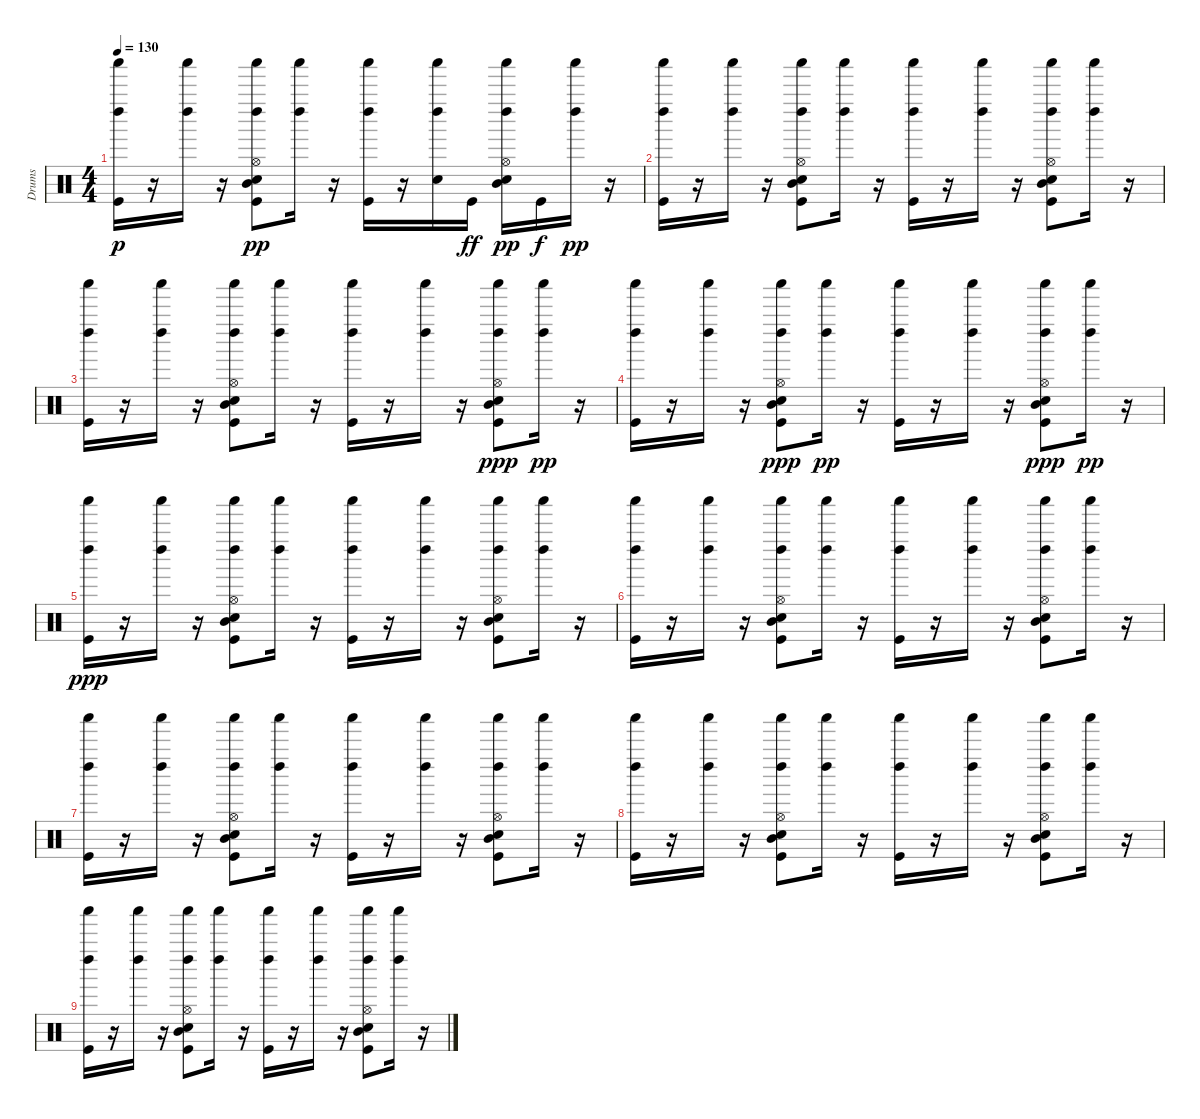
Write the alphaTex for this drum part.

\track ("Drums" "Drums") {instrument percussion}
\staff {score}
\articulation defaults
\ts (4 4)
\tempo 130
\clef neutral
\ks c
("Kick (hit)" "Shaker (hit)" "Left Maraca (hit)").16{dy p} r.16 ("Left Maraca (hit)" "Shaker (hit)").16 r.16 ("Snare (hit) 2" "Kick (hit)" "Left Maraca (hit)" "Shaker (hit)" "Mid Tom (hit)" "Hi-Hat (open)").8{dy pp} ("Left Maraca (hit)" "Shaker (hit)").16 r.16 ("Kick (hit)" "Shaker (hit)" "Left Maraca (hit)").16 r.16 ("Snare (hit) 2" "Left Maraca (hit)" "Shaker (hit)").16 "Kick (hit)".16{dy ff} ("Snare (hit) 2" "Left Maraca (hit)" "Shaker (hit)" "Mid Tom (hit)" "Hi-Hat (open)").16{dy pp} "Kick (hit)".16{dy f} ("Shaker (hit)" "Left Maraca (hit)").16{dy pp} r.16 |
("Kick (hit)" "Left Maraca (hit)" "Shaker (hit)").16 r.16 ("Left Maraca (hit)" "Shaker (hit)").16 r.16 ("Snare (hit) 2" "Kick (hit)" "Shaker (hit)" "Left Maraca (hit)" "Mid Tom (hit)" "Hi-Hat (open)").8 ("Left Maraca (hit)" "Shaker (hit)").16 r.16 ("Kick (hit)" "Left Maraca (hit)" "Shaker (hit)").16 r.16 ("Left Maraca (hit)" "Shaker (hit)").16 r.16 ("Snare (hit) 2" "Kick (hit)" "Left Maraca (hit)" "Shaker (hit)" "Mid Tom (hit)" "Hi-Hat (open)").8 ("Shaker (hit)" "Left Maraca (hit)").16 r.16 |
("Kick (hit)" "Shaker (hit)" "Left Maraca (hit)").16 r.16 ("Left Maraca (hit)" "Shaker (hit)").16 r.16 ("Snare (hit) 2" "Kick (hit)" "Left Maraca (hit)" "Shaker (hit)" "Mid Tom (hit)" "Hi-Hat (open)").8 ("Left Maraca (hit)" "Shaker (hit)").16 r.16 ("Kick (hit)" "Shaker (hit)" "Left Maraca (hit)").16 r.16 ("Left Maraca (hit)" "Shaker (hit)").16 r.16 ("Snare (hit) 2" "Kick (hit)" "Left Maraca (hit)" "Shaker (hit)" "Mid Tom (hit)" "Hi-Hat (open)").8{dy ppp} ("Shaker (hit)" "Left Maraca (hit)").16{dy pp} r.16 |
("Kick (hit)" "Shaker (hit)" "Left Maraca (hit)").16 r.16 ("Left Maraca (hit)" "Shaker (hit)").16 r.16 ("Snare (hit) 2" "Kick (hit)" "Shaker (hit)" "Left Maraca (hit)" "Mid Tom (hit)" "Hi-Hat (open)").8{dy ppp} ("Left Maraca (hit)" "Shaker (hit)").16{dy pp} r.16 ("Kick (hit)" "Left Maraca (hit)" "Shaker (hit)").16 r.16 ("Left Maraca (hit)" "Shaker (hit)").16 r.16 ("Snare (hit) 2" "Kick (hit)" "Left Maraca (hit)" "Shaker (hit)" "Mid Tom (hit)" "Hi-Hat (open)").8{dy ppp} ("Shaker (hit)" "Left Maraca (hit)").16{dy pp} r.16 |
("Kick (hit)" "Shaker (hit)" "Left Maraca (hit)").16{dy ppp} r.16 ("Left Maraca (hit)" "Shaker (hit)").16 r.16 ("Snare (hit) 2" "Kick (hit)" "Left Maraca (hit)" "Shaker (hit)" "Mid Tom (hit)" "Hi-Hat (open)").8 ("Left Maraca (hit)" "Shaker (hit)").16 r.16 ("Kick (hit)" "Shaker (hit)" "Left Maraca (hit)").16 r.16 ("Left Maraca (hit)" "Shaker (hit)").16 r.16 ("Snare (hit) 2" "Kick (hit)" "Left Maraca (hit)" "Shaker (hit)" "Mid Tom (hit)" "Hi-Hat (open)").8 ("Shaker (hit)" "Left Maraca (hit)").16 r.16 |
("Kick (hit)" "Left Maraca (hit)" "Shaker (hit)").16 r.16 ("Left Maraca (hit)" "Shaker (hit)").16 r.16 ("Snare (hit) 2" "Kick (hit)" "Shaker (hit)" "Left Maraca (hit)" "Mid Tom (hit)" "Hi-Hat (open)").8 ("Left Maraca (hit)" "Shaker (hit)").16 r.16 ("Kick (hit)" "Left Maraca (hit)" "Shaker (hit)").16 r.16 ("Left Maraca (hit)" "Shaker (hit)").16 r.16 ("Snare (hit) 2" "Kick (hit)" "Left Maraca (hit)" "Shaker (hit)" "Mid Tom (hit)" "Hi-Hat (open)").8 ("Shaker (hit)" "Left Maraca (hit)").16 r.16 |
("Kick (hit)" "Shaker (hit)" "Left Maraca (hit)").16 r.16 ("Left Maraca (hit)" "Shaker (hit)").16 r.16 ("Snare (hit) 2" "Kick (hit)" "Left Maraca (hit)" "Shaker (hit)" "Mid Tom (hit)" "Hi-Hat (open)").8 ("Left Maraca (hit)" "Shaker (hit)").16 r.16 ("Kick (hit)" "Shaker (hit)" "Left Maraca (hit)").16 r.16 ("Left Maraca (hit)" "Shaker (hit)").16 r.16 ("Snare (hit) 2" "Kick (hit)" "Left Maraca (hit)" "Shaker (hit)" "Mid Tom (hit)" "Hi-Hat (open)").8 ("Shaker (hit)" "Left Maraca (hit)").16 r.16 |
("Kick (hit)" "Shaker (hit)" "Left Maraca (hit)").16 r.16 ("Left Maraca (hit)" "Shaker (hit)").16 r.16 ("Snare (hit) 2" "Kick (hit)" "Shaker (hit)" "Left Maraca (hit)" "Mid Tom (hit)" "Hi-Hat (open)").8 ("Left Maraca (hit)" "Shaker (hit)").16 r.16 ("Kick (hit)" "Left Maraca (hit)" "Shaker (hit)").16 r.16 ("Left Maraca (hit)" "Shaker (hit)").16 r.16 ("Snare (hit) 2" "Kick (hit)" "Left Maraca (hit)" "Shaker (hit)" "Mid Tom (hit)" "Hi-Hat (open)").8 ("Shaker (hit)" "Left Maraca (hit)").16 r.16 |
("Kick (hit)" "Shaker (hit)" "Left Maraca (hit)").16 r.16 ("Left Maraca (hit)" "Shaker (hit)").16 r.16 ("Snare (hit) 2" "Kick (hit)" "Left Maraca (hit)" "Shaker (hit)" "Mid Tom (hit)" "Hi-Hat (open)").8 ("Left Maraca (hit)" "Shaker (hit)").16 r.16 ("Kick (hit)" "Shaker (hit)" "Left Maraca (hit)").16 r.16 ("Shaker (hit)" "Left Maraca (hit)").16 r.16 ("Shaker (hit)" "Kick (hit)" "Left Maraca (hit)" "Mid Tom (hit)" "Snare (hit) 2" "Hi-Hat (open)").8 ("Shaker (hit)" "Left Maraca (hit)").16 r.16
